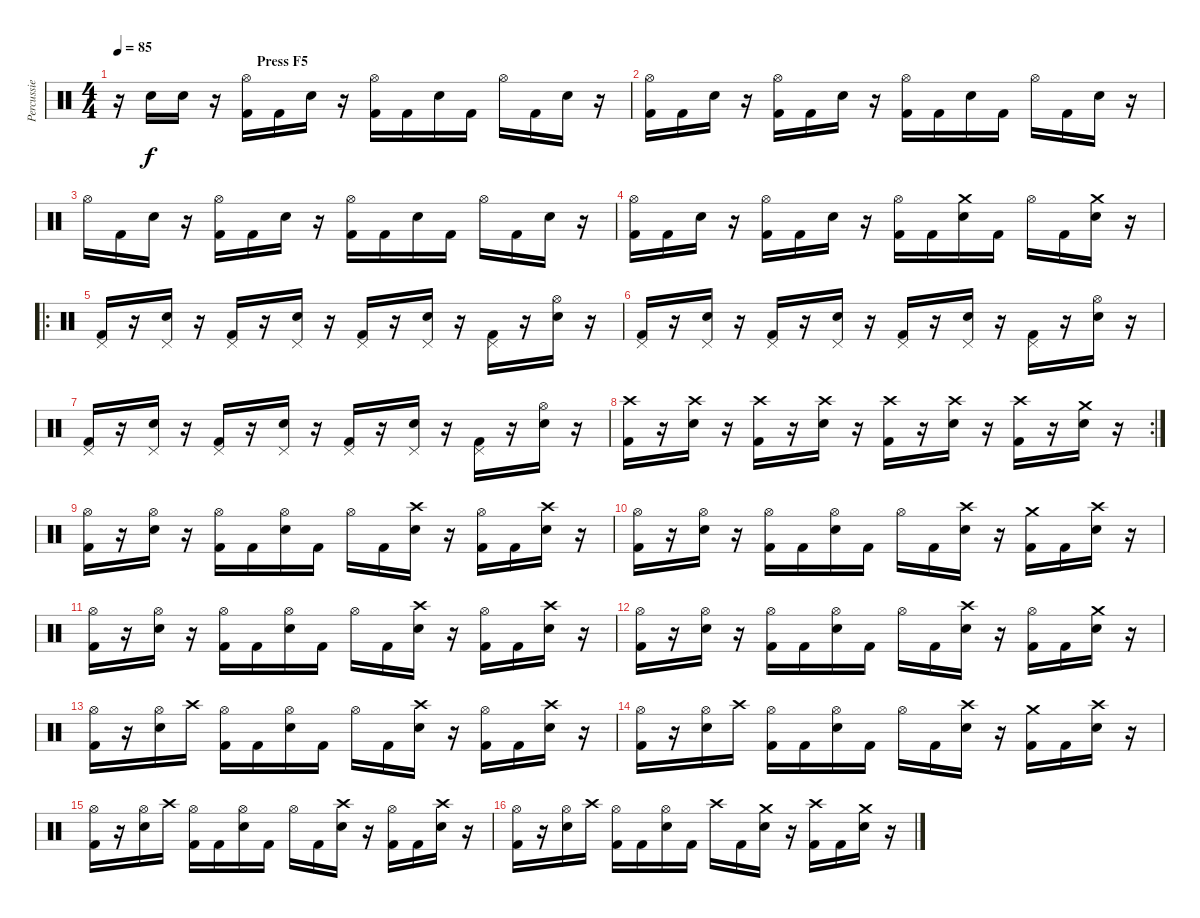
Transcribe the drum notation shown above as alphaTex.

\track ("Percussie" "Percussie") {instrument percussion}
\staff {score}
\articulation defaults
\ts (4 4)
\section ("" "                                         Press F5")
\tempo 85
\clef neutral
\ks c
r.16{dy f} "Snare (hit) 2".16 "Snare (hit) 2".16 r.16 ("Kick (hit) 2" "Hi-Hat (open)").16 "Kick (hit) 2".16 "Snare (hit) 2".16 r.16 ("Kick (hit) 2" "Hi-Hat (open)").16 "Kick (hit) 2".16 "Snare (hit) 2".16 "Kick (hit) 2".16 "Hi-Hat (open)".16 "Kick (hit) 2".16 "Snare (hit) 2".16 r.16 |
("Kick (hit) 2" "Hi-Hat (open)").16 "Kick (hit) 2".16 "Snare (hit) 2".16 r.16 ("Kick (hit) 2" "Hi-Hat (open)").16 "Kick (hit) 2".16 "Snare (hit) 2".16 r.16 ("Kick (hit) 2" "Hi-Hat (open)").16 "Kick (hit) 2".16 "Snare (hit) 2".16 "Kick (hit) 2".16 "Hi-Hat (open)".16 "Kick (hit) 2".16 "Snare (hit) 2".16 r.16 |
"Hi-Hat (open)".16 "Kick (hit) 2".16 "Snare (hit) 2".16 r.16 ("Kick (hit) 2" "Hi-Hat (open)").16 "Kick (hit) 2".16 "Snare (hit) 2".16 r.16 ("Kick (hit) 2" "Hi-Hat (open)").16 "Kick (hit) 2".16 "Snare (hit) 2".16 "Kick (hit) 2".16 "Hi-Hat (open)".16 "Kick (hit) 2".16 "Snare (hit) 2".16 r.16 |
("Kick (hit) 2" "Hi-Hat (open)").16 "Kick (hit) 2".16 "Snare (hit) 2".16 r.16 ("Kick (hit) 2" "Hi-Hat (open)").16 "Kick (hit) 2".16 "Snare (hit) 2".16 r.16 ("Kick (hit) 2" "Hi-Hat (open)").16 "Kick (hit) 2".16 ("Snare (hit) 2" "Crash medium (hit)").16 "Kick (hit) 2".16 "Hi-Hat (open)".16 "Kick (hit) 2".16 ("Snare (hit) 2" "Crash medium (hit)").16 r.16 |
\ro
("Kick (hit) 2" "Pedal Hi-Hat (hit)").16 r.16 ("Snare (hit) 2" "Pedal Hi-Hat (hit)").16 r.16 ("Kick (hit) 2" "Pedal Hi-Hat (hit)").16 r.16 ("Snare (hit) 2" "Pedal Hi-Hat (hit)").16 r.16 ("Kick (hit) 2" "Pedal Hi-Hat (hit)").16 r.16 ("Snare (hit) 2" "Pedal Hi-Hat (hit)").16 r.16 ("Kick (hit) 2" "Pedal Hi-Hat (hit)").16 r.16 ("Snare (hit) 2" "Hi-Hat (open)").16 r.16 |
("Kick (hit) 2" "Pedal Hi-Hat (hit)").16 r.16 ("Snare (hit) 2" "Pedal Hi-Hat (hit)").16 r.16 ("Kick (hit) 2" "Pedal Hi-Hat (hit)").16 r.16 ("Snare (hit) 2" "Pedal Hi-Hat (hit)").16 r.16 ("Kick (hit) 2" "Pedal Hi-Hat (hit)").16 r.16 ("Snare (hit) 2" "Pedal Hi-Hat (hit)").16 r.16 ("Kick (hit) 2" "Pedal Hi-Hat (hit)").16 r.16 ("Snare (hit) 2" "Hi-Hat (open)").16 r.16 |
("Kick (hit) 2" "Pedal Hi-Hat (hit)").16 r.16 ("Snare (hit) 2" "Pedal Hi-Hat (hit)").16 r.16 ("Kick (hit) 2" "Pedal Hi-Hat (hit)").16 r.16 ("Snare (hit) 2" "Pedal Hi-Hat (hit)").16 r.16 ("Kick (hit) 2" "Pedal Hi-Hat (hit)").16 r.16 ("Snare (hit) 2" "Pedal Hi-Hat (hit)").16 r.16 ("Kick (hit) 2" "Pedal Hi-Hat (hit)").16 r.16 ("Snare (hit) 2" "Hi-Hat (open)").16 r.16 |
\rc 2
("Kick (hit) 2" "Crash high (hit)").16 r.16 ("Snare (hit) 2" "Crash high (hit)").16 r.16 ("Kick (hit) 2" "Crash high (hit)").16 r.16 ("Snare (hit) 2" "Crash high (hit)").16 r.16 ("Kick (hit) 2" "Crash high (hit)").16 r.16 ("Snare (hit) 2" "Crash high (hit)").16 r.16 ("Kick (hit) 2" "Crash high (hit)").16 r.16 ("Snare (hit) 2" "Crash medium (hit)").16 r.16 |
("Kick (hit) 2" "Hi-Hat (open)").16 r.16 ("Snare (hit) 2" "Hi-Hat (open)").16 r.16 ("Kick (hit) 2" "Hi-Hat (open)").16 "Kick (hit) 2".16 ("Snare (hit) 2" "Hi-Hat (open)").16 "Kick (hit) 2".16 "Hi-Hat (open)".16 "Kick (hit) 2".16 ("Snare (hit) 2" "Crash high (hit)").16 r.16 ("Kick (hit) 2" "Hi-Hat (open)").16 "Kick (hit) 2".16 ("Snare (hit) 2" "Crash high (hit)").16 r.16 |
("Kick (hit) 2" "Hi-Hat (open)").16 r.16 ("Snare (hit) 2" "Hi-Hat (open)").16 r.16 ("Kick (hit) 2" "Hi-Hat (open)").16 "Kick (hit) 2".16 ("Snare (hit) 2" "Hi-Hat (open)").16 "Kick (hit) 2".16 "Hi-Hat (open)".16 "Kick (hit) 2".16 ("Snare (hit) 2" "Crash high (hit)").16 r.16 ("Kick (hit) 2" "Crash medium (hit)").16 "Kick (hit) 2".16 ("Snare (hit) 2" "Crash high (hit)").16 r.16 |
("Kick (hit) 2" "Hi-Hat (open)").16 r.16 ("Snare (hit) 2" "Hi-Hat (open)").16 r.16 ("Kick (hit) 2" "Hi-Hat (open)").16 "Kick (hit) 2".16 ("Snare (hit) 2" "Hi-Hat (open)").16 "Kick (hit) 2".16 "Hi-Hat (open)".16 "Kick (hit) 2".16 ("Snare (hit) 2" "Crash high (hit)").16 r.16 ("Kick (hit) 2" "Hi-Hat (open)").16 "Kick (hit) 2".16 ("Snare (hit) 2" "Crash high (hit)").16 r.16 |
("Kick (hit) 2" "Hi-Hat (open)").16 r.16 ("Snare (hit) 2" "Hi-Hat (open)").16 r.16 ("Kick (hit) 2" "Hi-Hat (open)").16 "Kick (hit) 2".16 ("Snare (hit) 2" "Hi-Hat (open)").16 "Kick (hit) 2".16 "Hi-Hat (open)".16 "Kick (hit) 2".16 ("Snare (hit) 2" "Crash high (hit)").16 r.16 ("Kick (hit) 2" "Hi-Hat (open)").16 "Kick (hit) 2".16 ("Snare (hit) 2" "Crash medium (hit)").16 r.16 |
("Kick (hit) 2" "Hi-Hat (open)").16 r.16 ("Snare (hit) 2" "Hi-Hat (open)").16 "Crash high (hit)".16 ("Kick (hit) 2" "Hi-Hat (open)").16 "Kick (hit) 2".16 ("Snare (hit) 2" "Hi-Hat (open)").16 "Kick (hit) 2".16 "Hi-Hat (open)".16 "Kick (hit) 2".16 ("Snare (hit) 2" "Crash high (hit)").16 r.16 ("Kick (hit) 2" "Hi-Hat (open)").16 "Kick (hit) 2".16 ("Snare (hit) 2" "Crash high (hit)").16 r.16 |
("Kick (hit) 2" "Hi-Hat (open)").16 r.16 ("Snare (hit) 2" "Hi-Hat (open)").16 "Crash high (hit)".16 ("Kick (hit) 2" "Hi-Hat (open)").16 "Kick (hit) 2".16 ("Snare (hit) 2" "Hi-Hat (open)").16 "Kick (hit) 2".16 "Hi-Hat (open)".16 "Kick (hit) 2".16 ("Snare (hit) 2" "Crash high (hit)").16 r.16 ("Kick (hit) 2" "Crash medium (hit)").16 "Kick (hit) 2".16 ("Snare (hit) 2" "Crash high (hit)").16 r.16 |
("Kick (hit) 2" "Hi-Hat (open)").16 r.16 ("Snare (hit) 2" "Hi-Hat (open)").16 "Crash high (hit)".16 ("Kick (hit) 2" "Hi-Hat (open)").16 "Kick (hit) 2".16 ("Snare (hit) 2" "Hi-Hat (open)").16 "Kick (hit) 2".16 "Hi-Hat (open)".16 "Kick (hit) 2".16 ("Snare (hit) 2" "Crash high (hit)").16 r.16 ("Kick (hit) 2" "Hi-Hat (open)").16 "Kick (hit) 2".16 ("Snare (hit) 2" "Crash high (hit)").16 r.16 |
("Kick (hit) 2" "Hi-Hat (open)").16 r.16 ("Snare (hit) 2" "Hi-Hat (open)").16 "Crash high (hit)".16 ("Kick (hit) 2" "Hi-Hat (open)").16 "Kick (hit) 2".16 ("Snare (hit) 2" "Hi-Hat (open)").16 "Kick (hit) 2".16 "Crash high (hit)".16 "Kick (hit) 2".16 ("Snare (hit) 2" "Crash medium (hit)").16 r.16 ("Kick (hit) 2" "Crash high (hit)").16 "Kick (hit) 2".16 ("Snare (hit) 2" "Crash medium (hit)").16 r.16
